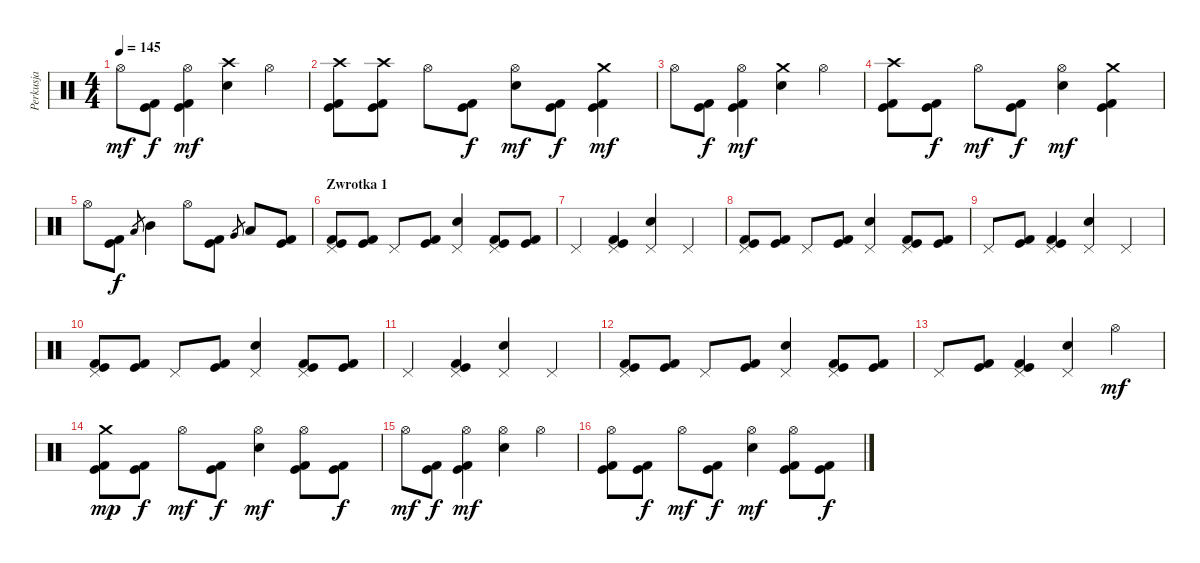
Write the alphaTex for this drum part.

\track ("Perkusja" "Perkusja") {instrument percussion}
\staff {score}
\articulation defaults
\ts (4 4)
\tempo 145
\clef neutral
\ks c "Hi-Hat (open)".8{dy mf}
("Kick (hit) 2" "Kick (hit)").8{dy f} ("Kick (hit) 2" "Kick (hit)" "Hi-Hat (open)").4{dy mf} ("Snare (hit) 2" "Crash high (hit)").4 "Hi-Hat (open)".4 |
("Kick (hit) 2" "Kick (hit)" "Crash high (hit)").8 ("Kick (hit) 2" "Kick (hit)" "Crash high (hit)").8 "Hi-Hat (open)".8 ("Kick (hit) 2" "Kick (hit)").8{dy f} ("Snare (hit) 2" "Hi-Hat (open)").8{dy mf} ("Kick (hit) 2" "Kick (hit)").8{dy f} ("Kick (hit) 2" "Kick (hit)" "Crash medium (hit)").4{dy mf} |
"Hi-Hat (open)".8 ("Kick (hit) 2" "Kick (hit)").8{dy f} ("Kick (hit) 2" "Kick (hit)" "Hi-Hat (open)").4{dy mf} ("Snare (hit) 2" "Crash medium (hit)").4 "Hi-Hat (open)".4 |
("Kick (hit) 2" "Kick (hit)" "Crash high (hit)").8 ("Kick (hit) 2" "Kick (hit)").8{dy f} "Hi-Hat (open)".8{dy mf} ("Kick (hit) 2" "Kick (hit)").8{dy f} ("Snare (hit) 2" "Hi-Hat (open)").4{dy mf} ("Kick (hit) 2" "Kick (hit)" "Crash medium (hit)").4 |
"Hi-Hat (open)".8 ("Kick (hit) 2" "Kick (hit)").8{dy f} "Low Tom (hit)".8{gr} "Mid Tom (hit)".4 "Hi-Hat (open)".8 ("Kick (hit) 2" "Kick (hit)").8 "Very Low Tom (hit)".8{gr} "Low Tom (hit)".8 ("Kick (hit) 2" "Kick (hit)").8 |
\section ("" "Zwrotka 1")
("Kick (hit) 2" "Kick (hit)" "Pedal Hi-Hat (hit)").8 ("Kick (hit) 2" "Kick (hit)").8 "Pedal Hi-Hat (hit)".8 ("Kick (hit) 2" "Kick (hit)").8 ("Snare (hit) 2" "Pedal Hi-Hat (hit)").4 ("Kick (hit) 2" "Kick (hit)" "Pedal Hi-Hat (hit)").8 ("Kick (hit) 2" "Kick (hit)").8 |
"Pedal Hi-Hat (hit)".4 ("Kick (hit) 2" "Kick (hit)" "Pedal Hi-Hat (hit)").4 ("Snare (hit) 2" "Pedal Hi-Hat (hit)").4 "Pedal Hi-Hat (hit)".4 |
("Kick (hit) 2" "Kick (hit)" "Pedal Hi-Hat (hit)").8 ("Kick (hit) 2" "Kick (hit)").8 "Pedal Hi-Hat (hit)".8 ("Kick (hit) 2" "Kick (hit)").8 ("Snare (hit) 2" "Pedal Hi-Hat (hit)").4 ("Kick (hit) 2" "Kick (hit)" "Pedal Hi-Hat (hit)").8 ("Kick (hit) 2" "Kick (hit)").8 |
"Pedal Hi-Hat (hit)".8 ("Kick (hit) 2" "Kick (hit)").8 ("Kick (hit) 2" "Kick (hit)" "Pedal Hi-Hat (hit)").4 ("Snare (hit) 2" "Pedal Hi-Hat (hit)").4 "Pedal Hi-Hat (hit)".4 |
("Kick (hit) 2" "Kick (hit)" "Pedal Hi-Hat (hit)").8 ("Kick (hit) 2" "Kick (hit)").8 "Pedal Hi-Hat (hit)".8 ("Kick (hit) 2" "Kick (hit)").8 ("Snare (hit) 2" "Pedal Hi-Hat (hit)").4 ("Kick (hit) 2" "Kick (hit)" "Pedal Hi-Hat (hit)").8 ("Kick (hit) 2" "Kick (hit)").8 |
"Pedal Hi-Hat (hit)".4 ("Kick (hit) 2" "Kick (hit)" "Pedal Hi-Hat (hit)").4 ("Snare (hit) 2" "Pedal Hi-Hat (hit)").4 "Pedal Hi-Hat (hit)".4 |
("Kick (hit) 2" "Kick (hit)" "Pedal Hi-Hat (hit)").8 ("Kick (hit) 2" "Kick (hit)").8 "Pedal Hi-Hat (hit)".8 ("Kick (hit) 2" "Kick (hit)").8 ("Snare (hit) 2" "Pedal Hi-Hat (hit)").4 ("Kick (hit) 2" "Kick (hit)" "Pedal Hi-Hat (hit)").8 ("Kick (hit) 2" "Kick (hit)").8 |
"Pedal Hi-Hat (hit)".8 ("Kick (hit) 2" "Kick (hit)").8 ("Kick (hit) 2" "Kick (hit)" "Pedal Hi-Hat (hit)").4 ("Snare (hit) 2" "Pedal Hi-Hat (hit)").4 "Hi-Hat (open)".4{dy mf} |
("Kick (hit) 2" "Kick (hit)" "Crash medium (hit)").8{dy mp} ("Kick (hit) 2" "Kick (hit)").8{dy f} "Hi-Hat (open)".8{dy mf} ("Kick (hit) 2" "Kick (hit)").8{dy f} ("Snare (hit) 2" "Hi-Hat (open)").4{dy mf} ("Kick (hit) 2" "Kick (hit)" "Hi-Hat (open)").8 ("Kick (hit) 2" "Kick (hit)").8{dy f} |
"Hi-Hat (open)".8{dy mf} ("Kick (hit) 2" "Kick (hit)").8{dy f} ("Kick (hit) 2" "Kick (hit)" "Hi-Hat (open)").4{dy mf} ("Snare (hit) 2" "Hi-Hat (open)").4 "Hi-Hat (open)".4 |
("Kick (hit) 2" "Kick (hit)" "Hi-Hat (open)").8 ("Kick (hit) 2" "Kick (hit)").8{dy f} "Hi-Hat (open)".8{dy mf} ("Kick (hit) 2" "Kick (hit)").8{dy f} ("Snare (hit) 2" "Hi-Hat (open)").4{dy mf} ("Kick (hit) 2" "Kick (hit)" "Hi-Hat (open)").8 ("Kick (hit) 2" "Kick (hit)").8{dy f}
